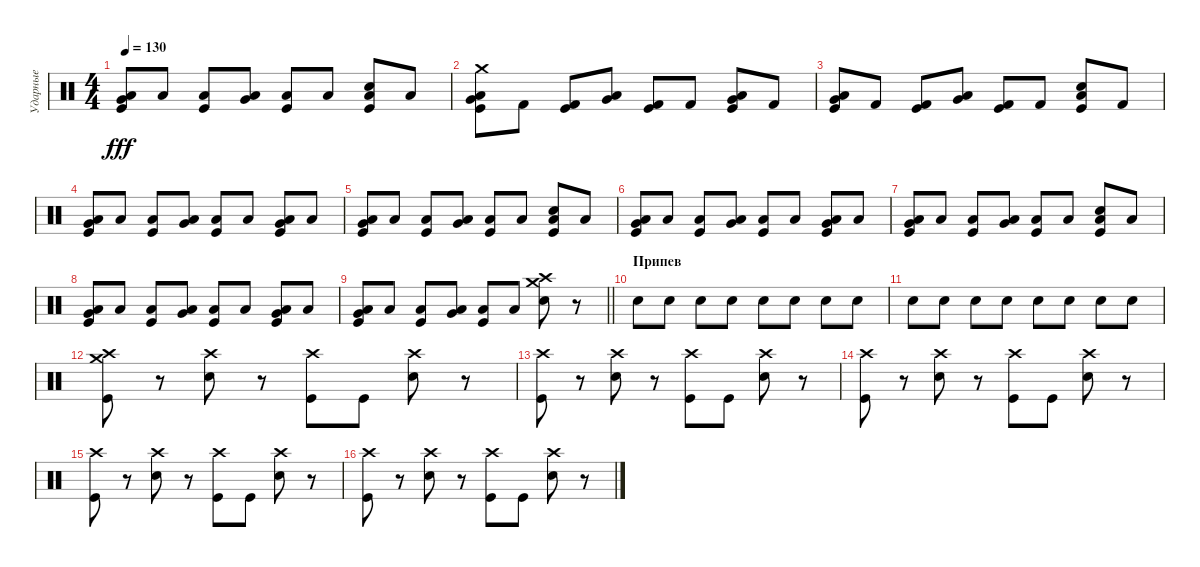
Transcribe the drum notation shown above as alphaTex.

\track ("Ударные" "Ударные") {instrument percussion}
\staff {score}
\articulation defaults
\ts (4 4)
\tempo 130
\clef neutral
\ks c
("Kick (hit)" "Low Tom (hit)" "Very Low Tom (hit)").8{dy fff} "Low Tom (hit)".8 ("Kick (hit)" "Low Tom (hit)").8 ("Low Tom (hit)" "Very Low Tom (hit)").8 ("Kick (hit)" "Low Tom (hit)").8 "Low Tom (hit)".8 ("Kick (hit)" "Low Tom (hit)" "Electric Snare (hit)").8 "Low Tom (hit)".8 |
("Kick (hit)" "Low Tom (hit)" "Very Low Tom (hit)" "Crash medium (hit)").8 "Kick (hit) 2".8 ("Kick (hit)" "Kick (hit) 2").8 ("Low Tom (hit)" "Very Low Tom (hit)").8 ("Kick (hit)" "Kick (hit) 2").8 "Kick (hit) 2".8 ("Kick (hit)" "Low Tom (hit)" "Very Low Tom (hit)").8 "Kick (hit) 2".8 |
("Kick (hit)" "Low Tom (hit)" "Very Low Tom (hit)").8 "Kick (hit) 2".8 ("Kick (hit)" "Kick (hit) 2").8 ("Low Tom (hit)" "Very Low Tom (hit)").8 ("Kick (hit)" "Kick (hit) 2").8 "Kick (hit) 2".8 ("Kick (hit)" "Low Tom (hit)" "Electric Snare (hit)").8 "Kick (hit) 2".8 |
("Kick (hit)" "Low Tom (hit)" "Very Low Tom (hit)").8 "Low Tom (hit)".8 ("Kick (hit)" "Low Tom (hit)").8 ("Low Tom (hit)" "Very Low Tom (hit)").8 ("Kick (hit)" "Low Tom (hit)").8 "Low Tom (hit)".8 ("Kick (hit)" "Low Tom (hit)" "Very Low Tom (hit)").8 "Low Tom (hit)".8 |
("Kick (hit)" "Low Tom (hit)" "Very Low Tom (hit)").8 "Low Tom (hit)".8 ("Kick (hit)" "Low Tom (hit)").8 ("Low Tom (hit)" "Very Low Tom (hit)").8 ("Kick (hit)" "Low Tom (hit)").8 "Low Tom (hit)".8 ("Kick (hit)" "Low Tom (hit)" "Electric Snare (hit)").8 "Low Tom (hit)".8 |
("Kick (hit)" "Low Tom (hit)" "Very Low Tom (hit)").8 "Low Tom (hit)".8 ("Kick (hit)" "Low Tom (hit)").8 ("Low Tom (hit)" "Very Low Tom (hit)").8 ("Kick (hit)" "Low Tom (hit)").8 "Low Tom (hit)".8 ("Kick (hit)" "Low Tom (hit)" "Very Low Tom (hit)").8 "Low Tom (hit)".8 |
("Kick (hit)" "Low Tom (hit)" "Very Low Tom (hit)").8 "Low Tom (hit)".8 ("Kick (hit)" "Low Tom (hit)").8 ("Low Tom (hit)" "Very Low Tom (hit)").8 ("Kick (hit)" "Low Tom (hit)").8 "Low Tom (hit)".8 ("Kick (hit)" "Low Tom (hit)" "Electric Snare (hit)").8 "Low Tom (hit)".8 |
("Kick (hit)" "Low Tom (hit)" "Very Low Tom (hit)").8 "Low Tom (hit)".8 ("Kick (hit)" "Low Tom (hit)").8 ("Low Tom (hit)" "Very Low Tom (hit)").8 ("Kick (hit)" "Low Tom (hit)").8 "Low Tom (hit)".8 ("Kick (hit)" "Low Tom (hit)" "Very Low Tom (hit)").8 "Low Tom (hit)".8 |
\barLineRight lightlight
("Kick (hit)" "Low Tom (hit)" "Very Low Tom (hit)").8 "Low Tom (hit)".8 ("Kick (hit)" "Low Tom (hit)").8 ("Low Tom (hit)" "Very Low Tom (hit)").8 ("Kick (hit)" "Low Tom (hit)").8 "Low Tom (hit)".8 ("Crash high (hit)" "Crash medium (hit)" "Electric Snare (hit)").8 r.8 |
\section ("" "Припев")
"Electric Snare (hit)".8 "Electric Snare (hit)".8 "Electric Snare (hit)".8 "Electric Snare (hit)".8 "Electric Snare (hit)".8 "Electric Snare (hit)".8 "Electric Snare (hit)".8 "Electric Snare (hit)".8 |
"Electric Snare (hit)".8 "Electric Snare (hit)".8 "Electric Snare (hit)".8 "Electric Snare (hit)".8 "Electric Snare (hit)".8 "Electric Snare (hit)".8 "Electric Snare (hit)".8 "Electric Snare (hit)".8 |
("Crash medium (hit)" "Kick (hit)" "Crash high (hit)").8 r.8 ("Crash high (hit)" "Electric Snare (hit)").8 r.8 ("Crash high (hit)" "Kick (hit)").8 "Kick (hit)".8 ("Crash high (hit)" "Electric Snare (hit)").8 r.8 |
("Crash high (hit)" "Kick (hit)").8 r.8 ("Crash high (hit)" "Electric Snare (hit)").8 r.8 ("Crash high (hit)" "Kick (hit)").8 "Kick (hit)".8 ("Crash high (hit)" "Electric Snare (hit)").8 r.8 |
("Crash high (hit)" "Kick (hit)").8 r.8 ("Crash high (hit)" "Electric Snare (hit)").8 r.8 ("Crash high (hit)" "Kick (hit)").8 "Kick (hit)".8 ("Crash high (hit)" "Electric Snare (hit)").8 r.8 |
("Crash high (hit)" "Kick (hit)").8 r.8 ("Crash high (hit)" "Electric Snare (hit)").8 r.8 ("Crash high (hit)" "Kick (hit)").8 "Kick (hit)".8 ("Crash high (hit)" "Electric Snare (hit)").8 r.8 |
("Crash high (hit)" "Kick (hit)").8 r.8 ("Crash high (hit)" "Electric Snare (hit)").8 r.8 ("Crash high (hit)" "Kick (hit)").8 "Kick (hit)".8 ("Crash high (hit)" "Electric Snare (hit)").8 r.8
